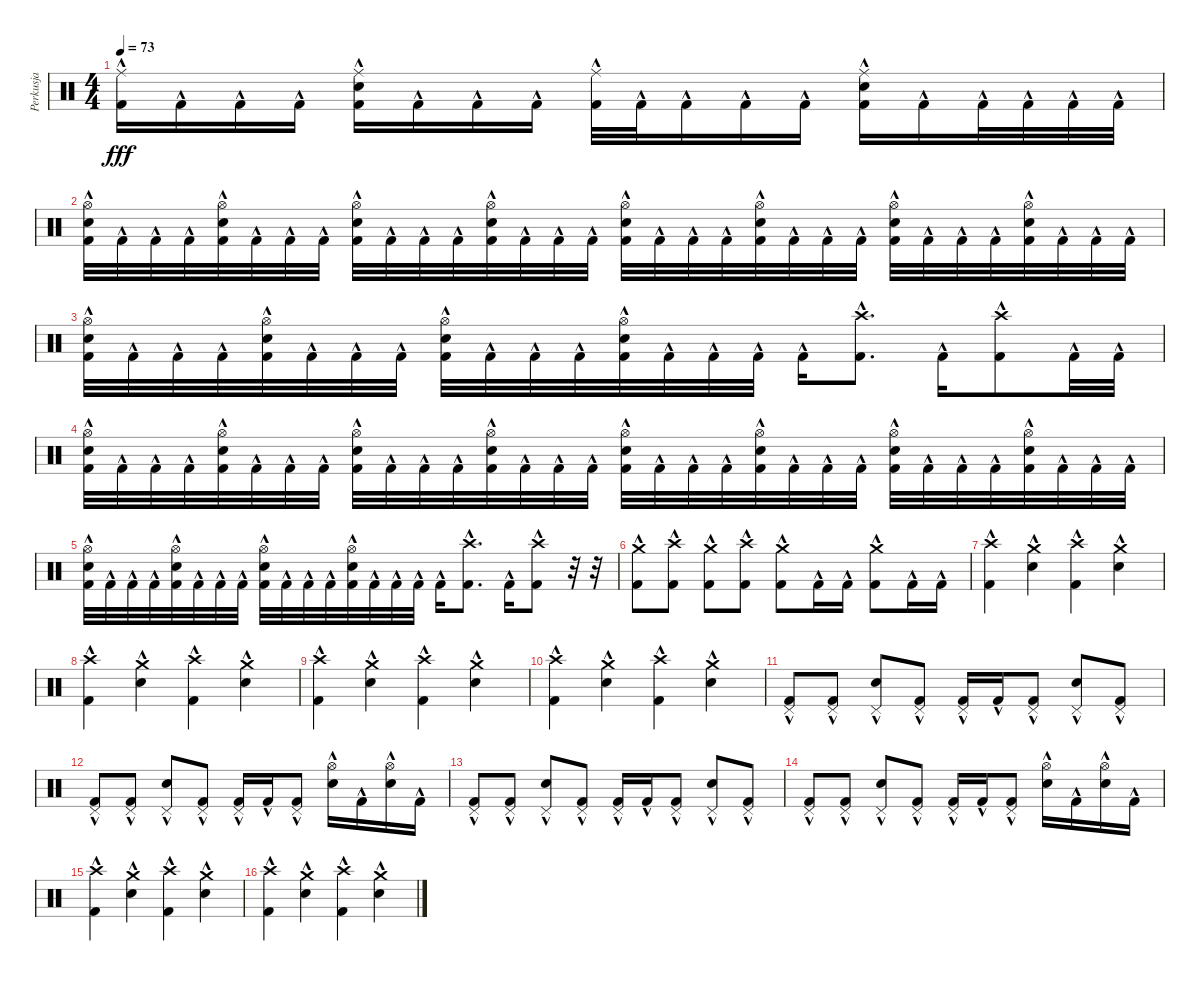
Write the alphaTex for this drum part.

\track ("Perkusja" "Perkusja") {instrument percussion}
\staff {score}
\articulation defaults
\ts (4 4)
\tempo 73
\clef neutral
\ks c
("Ride (middle)" "Kick (hit) 2"{hac}).16{dy fff} "Kick (hit) 2"{hac}.16 "Kick (hit) 2"{hac}.16 "Kick (hit) 2"{hac}.16 ("Ride (middle)" "Electric Snare (hit)"{hac} "Kick (hit) 2"{hac}).16 "Kick (hit) 2"{hac}.16 "Kick (hit) 2"{hac}.16 "Kick (hit) 2"{hac}.16 ("Ride (middle)" "Kick (hit) 2"{hac}).32 "Kick (hit) 2"{hac}.32 "Kick (hit) 2"{hac}.16 "Kick (hit) 2"{hac}.16 "Kick (hit) 2"{hac}.16 ("Ride (middle)" "Electric Snare (hit)"{hac} "Kick (hit) 2"{hac}).16 "Kick (hit) 2"{hac}.16 "Kick (hit) 2"{hac}.32 "Kick (hit) 2"{hac}.32 "Kick (hit) 2"{hac}.32 "Kick (hit) 2"{hac}.32 |
("Hi-Hat (open)" "Electric Snare (hit)"{hac} "Kick (hit) 2"{hac}).32 "Kick (hit) 2"{hac}.32 "Kick (hit) 2"{hac}.32 "Kick (hit) 2"{hac}.32 ("Hi-Hat (open)" "Electric Snare (hit)"{hac} "Kick (hit) 2"{hac}).32 "Kick (hit) 2"{hac}.32 "Kick (hit) 2"{hac}.32 "Kick (hit) 2"{hac}.32 ("Hi-Hat (open)" "Electric Snare (hit)"{hac} "Kick (hit) 2"{hac}).32 "Kick (hit) 2"{hac}.32 "Kick (hit) 2"{hac}.32 "Kick (hit) 2"{hac}.32 ("Hi-Hat (open)" "Electric Snare (hit)"{hac} "Kick (hit) 2"{hac}).32 "Kick (hit) 2"{hac}.32 "Kick (hit) 2"{hac}.32 "Kick (hit) 2"{hac}.32 ("Hi-Hat (open)" "Electric Snare (hit)"{hac} "Kick (hit) 2"{hac}).32 "Kick (hit) 2"{hac}.32 "Kick (hit) 2"{hac}.32 "Kick (hit) 2"{hac}.32 ("Hi-Hat (open)" "Electric Snare (hit)"{hac} "Kick (hit) 2"{hac}).32 "Kick (hit) 2"{hac}.32 "Kick (hit) 2"{hac}.32 "Kick (hit) 2"{hac}.32 ("Hi-Hat (open)" "Electric Snare (hit)"{hac} "Kick (hit) 2"{hac}).32 "Kick (hit) 2"{hac}.32 "Kick (hit) 2"{hac}.32 "Kick (hit) 2"{hac}.32 ("Hi-Hat (open)" "Electric Snare (hit)"{hac} "Kick (hit) 2"{hac}).32 "Kick (hit) 2"{hac}.32 "Kick (hit) 2"{hac}.32 "Kick (hit) 2"{hac}.32 |
("Hi-Hat (open)" "Electric Snare (hit)"{hac} "Kick (hit) 2"{hac}).32 "Kick (hit) 2"{hac}.32 "Kick (hit) 2"{hac}.32 "Kick (hit) 2"{hac}.32 ("Hi-Hat (open)" "Electric Snare (hit)"{hac} "Kick (hit) 2"{hac}).32 "Kick (hit) 2"{hac}.32 "Kick (hit) 2"{hac}.32 "Kick (hit) 2"{hac}.32 ("Hi-Hat (open)" "Electric Snare (hit)"{hac} "Kick (hit) 2"{hac}).32 "Kick (hit) 2"{hac}.32 "Kick (hit) 2"{hac}.32 "Kick (hit) 2"{hac}.32 ("Hi-Hat (open)" "Electric Snare (hit)"{hac} "Kick (hit) 2"{hac}).32 "Kick (hit) 2"{hac}.32 "Kick (hit) 2"{hac}.32 "Kick (hit) 2"{hac}.32 "Kick (hit) 2"{hac}.16 ("Crash high (hit)" "Kick (hit) 2"{hac}).8{d} "Kick (hit) 2"{hac}.16 ("Crash high (hit)" "Kick (hit) 2"{hac}).8 "Kick (hit) 2"{hac}.32 "Kick (hit) 2"{hac}.32 |
("Hi-Hat (open)" "Electric Snare (hit)"{hac} "Kick (hit) 2"{hac}).32 "Kick (hit) 2"{hac}.32 "Kick (hit) 2"{hac}.32 "Kick (hit) 2"{hac}.32 ("Hi-Hat (open)" "Electric Snare (hit)"{hac} "Kick (hit) 2"{hac}).32 "Kick (hit) 2"{hac}.32 "Kick (hit) 2"{hac}.32 "Kick (hit) 2"{hac}.32 ("Hi-Hat (open)" "Electric Snare (hit)"{hac} "Kick (hit) 2"{hac}).32 "Kick (hit) 2"{hac}.32 "Kick (hit) 2"{hac}.32 "Kick (hit) 2"{hac}.32 ("Hi-Hat (open)" "Electric Snare (hit)"{hac} "Kick (hit) 2"{hac}).32 "Kick (hit) 2"{hac}.32 "Kick (hit) 2"{hac}.32 "Kick (hit) 2"{hac}.32 ("Hi-Hat (open)" "Electric Snare (hit)"{hac} "Kick (hit) 2"{hac}).32 "Kick (hit) 2"{hac}.32 "Kick (hit) 2"{hac}.32 "Kick (hit) 2"{hac}.32 ("Hi-Hat (open)" "Electric Snare (hit)"{hac} "Kick (hit) 2"{hac}).32 "Kick (hit) 2"{hac}.32 "Kick (hit) 2"{hac}.32 "Kick (hit) 2"{hac}.32 ("Hi-Hat (open)" "Electric Snare (hit)"{hac} "Kick (hit) 2"{hac}).32 "Kick (hit) 2"{hac}.32 "Kick (hit) 2"{hac}.32 "Kick (hit) 2"{hac}.32 ("Hi-Hat (open)" "Electric Snare (hit)"{hac} "Kick (hit) 2"{hac}).32 "Kick (hit) 2"{hac}.32 "Kick (hit) 2"{hac}.32 "Kick (hit) 2"{hac}.32 |
("Hi-Hat (open)" "Electric Snare (hit)"{hac} "Kick (hit) 2"{hac}).32 "Kick (hit) 2"{hac}.32 "Kick (hit) 2"{hac}.32 "Kick (hit) 2"{hac}.32 ("Hi-Hat (open)" "Electric Snare (hit)"{hac} "Kick (hit) 2"{hac}).32 "Kick (hit) 2"{hac}.32 "Kick (hit) 2"{hac}.32 "Kick (hit) 2"{hac}.32 ("Hi-Hat (open)" "Electric Snare (hit)"{hac} "Kick (hit) 2"{hac}).32 "Kick (hit) 2"{hac}.32 "Kick (hit) 2"{hac}.32 "Kick (hit) 2"{hac}.32 ("Hi-Hat (open)" "Electric Snare (hit)"{hac} "Kick (hit) 2"{hac}).32 "Kick (hit) 2"{hac}.32 "Kick (hit) 2"{hac}.32 "Kick (hit) 2"{hac}.32 "Kick (hit) 2"{hac}.16 ("Crash high (hit)" "Kick (hit) 2"{hac}).8{d} "Kick (hit) 2"{hac}.16 ("Crash high (hit)" "Kick (hit) 2"{hac}).8 r.32 r.32 |
("Crash medium (hit)" "Kick (hit) 2"{hac}).8 ("Crash high (hit)" "Kick (hit) 2"{hac}).8 ("Crash medium (hit)" "Kick (hit) 2"{hac}).8 ("Crash high (hit)" "Kick (hit) 2"{hac}).8 ("Crash medium (hit)" "Kick (hit) 2"{hac}).8 "Kick (hit) 2"{hac}.16 "Kick (hit) 2"{hac}.16 ("Crash medium (hit)" "Kick (hit) 2"{hac}).8 "Kick (hit) 2"{hac}.16 "Kick (hit) 2"{hac}.16 |
("Crash high (hit)" "Kick (hit) 2"{hac}).4 ("Crash medium (hit)" "Electric Snare (hit)"{hac}).4 ("Crash high (hit)" "Kick (hit) 2"{hac}).4 ("Crash medium (hit)" "Electric Snare (hit)"{hac}).4 |
("Crash high (hit)" "Kick (hit) 2"{hac}).4 ("Crash medium (hit)" "Electric Snare (hit)"{hac}).4 ("Crash high (hit)" "Kick (hit) 2"{hac}).4 ("Crash medium (hit)" "Electric Snare (hit)"{hac}).4 |
("Crash high (hit)" "Kick (hit) 2"{hac}).4 ("Crash medium (hit)" "Electric Snare (hit)"{hac}).4 ("Crash high (hit)" "Kick (hit) 2"{hac}).4 ("Crash medium (hit)" "Electric Snare (hit)"{hac}).4 |
("Crash high (hit)" "Kick (hit) 2"{hac}).4 ("Crash medium (hit)" "Electric Snare (hit)"{hac}).4 ("Crash high (hit)" "Kick (hit) 2"{hac}).4 ("Crash medium (hit)" "Electric Snare (hit)"{hac}).4 |
("Pedal Hi-Hat (hit)" "Kick (hit) 2"{hac}).8 ("Pedal Hi-Hat (hit)" "Kick (hit) 2"{hac}).8 ("Pedal Hi-Hat (hit)" "Electric Snare (hit)"{hac}).8 ("Pedal Hi-Hat (hit)" "Kick (hit) 2"{hac}).8 ("Pedal Hi-Hat (hit)" "Kick (hit) 2"{hac}).16 "Kick (hit) 2"{hac}.16 ("Pedal Hi-Hat (hit)" "Kick (hit) 2"{hac}).8 ("Pedal Hi-Hat (hit)" "Electric Snare (hit)"{hac}).8 ("Pedal Hi-Hat (hit)" "Kick (hit) 2"{hac}).8 |
("Pedal Hi-Hat (hit)" "Kick (hit) 2"{hac}).8 ("Pedal Hi-Hat (hit)" "Kick (hit) 2"{hac}).8 ("Pedal Hi-Hat (hit)" "Electric Snare (hit)"{hac}).8 ("Pedal Hi-Hat (hit)" "Kick (hit) 2"{hac}).8 ("Pedal Hi-Hat (hit)" "Kick (hit) 2"{hac}).16 "Kick (hit) 2"{hac}.16 ("Pedal Hi-Hat (hit)" "Kick (hit) 2"{hac}).8 ("Hi-Hat (open)" "Electric Snare (hit)"{hac}).16 "Kick (hit) 2"{hac}.16 ("Hi-Hat (open)" "Electric Snare (hit)"{hac}).16 "Kick (hit) 2"{hac}.16 |
("Pedal Hi-Hat (hit)" "Kick (hit) 2"{hac}).8 ("Pedal Hi-Hat (hit)" "Kick (hit) 2"{hac}).8 ("Pedal Hi-Hat (hit)" "Electric Snare (hit)"{hac}).8 ("Pedal Hi-Hat (hit)" "Kick (hit) 2"{hac}).8 ("Pedal Hi-Hat (hit)" "Kick (hit) 2"{hac}).16 "Kick (hit) 2"{hac}.16 ("Pedal Hi-Hat (hit)" "Kick (hit) 2"{hac}).8 ("Pedal Hi-Hat (hit)" "Electric Snare (hit)"{hac}).8 ("Pedal Hi-Hat (hit)" "Kick (hit) 2"{hac}).8 |
("Pedal Hi-Hat (hit)" "Kick (hit) 2"{hac}).8 ("Pedal Hi-Hat (hit)" "Kick (hit) 2"{hac}).8 ("Pedal Hi-Hat (hit)" "Electric Snare (hit)"{hac}).8 ("Pedal Hi-Hat (hit)" "Kick (hit) 2"{hac}).8 ("Pedal Hi-Hat (hit)" "Kick (hit) 2"{hac}).16 "Kick (hit) 2"{hac}.16 ("Pedal Hi-Hat (hit)" "Kick (hit) 2"{hac}).8 ("Hi-Hat (open)" "Electric Snare (hit)"{hac}).16 "Kick (hit) 2"{hac}.16 ("Hi-Hat (open)" "Electric Snare (hit)"{hac}).16 "Kick (hit) 2"{hac}.16 |
("Crash high (hit)" "Kick (hit) 2"{hac}).4 ("Crash medium (hit)" "Electric Snare (hit)"{hac}).4 ("Crash high (hit)" "Kick (hit) 2"{hac}).4 ("Crash medium (hit)" "Electric Snare (hit)"{hac}).4 |
("Crash high (hit)" "Kick (hit) 2"{hac}).4 ("Crash medium (hit)" "Electric Snare (hit)"{hac}).4 ("Crash high (hit)" "Kick (hit) 2"{hac}).4 ("Crash medium (hit)" "Electric Snare (hit)"{hac}).4
